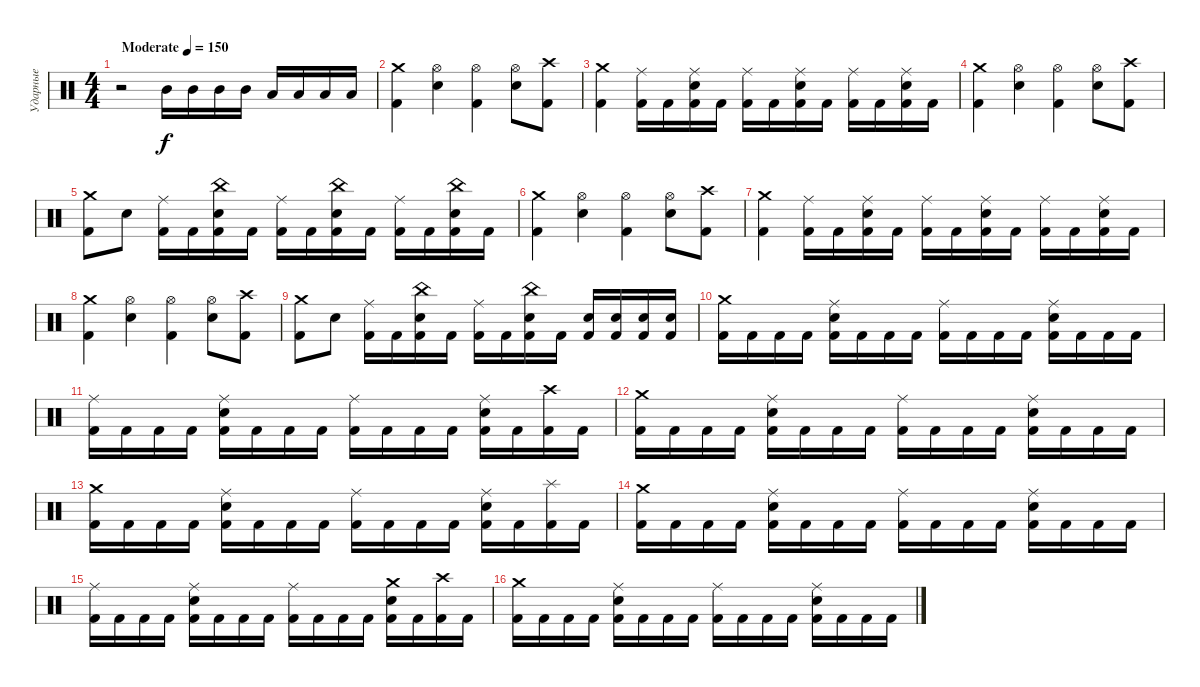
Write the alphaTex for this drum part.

\track ("Ударные" "Ударные") {instrument percussion}
\staff {score}
\articulation defaults
\ts (4 4)
\tempo (150 "Moderate")
\clef neutral
\ks c
r.2{dy f} "Mid Tom (hit)".16 "Mid Tom (hit)".16 "Mid Tom (hit)".16 "Mid Tom (hit)".16 "Low Tom (hit)".16 "Low Tom (hit)".16 "Low Tom (hit)".16 "Low Tom (hit)".16 |
("Crash medium (hit)" "Kick (hit) 2").4 ("Hi-Hat (open)" "Electric Snare (hit)").4 ("Hi-Hat (open)" "Kick (hit) 2").4 ("Hi-Hat (open)" "Electric Snare (hit)").8 ("Crash high (hit)" "Kick (hit) 2").8 |
("Crash medium (hit)" "Kick (hit) 2").4 ("Ride (middle)" "Kick (hit) 2").16 "Kick (hit) 2".16 ("Ride (middle)" "Electric Snare (hit)" "Kick (hit) 2").16 "Kick (hit) 2".16 ("Ride (middle)" "Kick (hit) 2").16 "Kick (hit) 2".16 ("Ride (middle)" "Electric Snare (hit)" "Kick (hit) 2").16 "Kick (hit) 2".16 ("Ride (middle)" "Kick (hit) 2").16 "Kick (hit) 2".16 ("Ride (middle)" "Electric Snare (hit)" "Kick (hit) 2").16 "Kick (hit) 2".16 |
("Crash medium (hit)" "Kick (hit) 2").4 ("Hi-Hat (open)" "Electric Snare (hit)").4 ("Hi-Hat (open)" "Kick (hit) 2").4 ("Hi-Hat (open)" "Electric Snare (hit)").8 ("Crash high (hit)" "Kick (hit) 2").8 |
("Crash medium (hit)" "Kick (hit) 2").8 "Electric Snare (hit)".8 ("Ride (middle)" "Kick (hit) 2").16 "Kick (hit) 2".16 ("China (hit)" "Electric Snare (hit)" "Kick (hit) 2").16 "Kick (hit) 2".16 ("Ride (middle)" "Kick (hit) 2").16 "Kick (hit) 2".16 ("China (hit)" "Electric Snare (hit)" "Kick (hit) 2").16 "Kick (hit) 2".16 ("Ride (middle)" "Kick (hit) 2").16 "Kick (hit) 2".16 ("China (hit)" "Electric Snare (hit)" "Kick (hit) 2").16 "Kick (hit) 2".16 |
("Crash medium (hit)" "Kick (hit) 2").4 ("Hi-Hat (open)" "Electric Snare (hit)").4 ("Hi-Hat (open)" "Kick (hit) 2").4 ("Hi-Hat (open)" "Electric Snare (hit)").8 ("Crash high (hit)" "Kick (hit) 2").8 |
("Crash medium (hit)" "Kick (hit) 2").4 ("Ride (middle)" "Kick (hit) 2").16 "Kick (hit) 2".16 ("Ride (middle)" "Electric Snare (hit)" "Kick (hit) 2").16 "Kick (hit) 2".16 ("Ride (middle)" "Kick (hit) 2").16 "Kick (hit) 2".16 ("Ride (middle)" "Electric Snare (hit)" "Kick (hit) 2").16 "Kick (hit) 2".16 ("Ride (middle)" "Kick (hit) 2").16 "Kick (hit) 2".16 ("Ride (middle)" "Electric Snare (hit)" "Kick (hit) 2").16 "Kick (hit) 2".16 |
("Crash medium (hit)" "Kick (hit) 2").4 ("Hi-Hat (open)" "Electric Snare (hit)").4 ("Hi-Hat (open)" "Kick (hit) 2").4 ("Hi-Hat (open)" "Electric Snare (hit)").8 ("Crash high (hit)" "Kick (hit) 2").8 |
("Crash medium (hit)" "Kick (hit) 2").8 "Electric Snare (hit)".8 ("Ride (middle)" "Kick (hit) 2").16 "Kick (hit) 2".16 ("China (hit)" "Electric Snare (hit)" "Kick (hit) 2").16 "Kick (hit) 2".16 ("Ride (middle)" "Kick (hit) 2").16 "Kick (hit) 2".16 ("China (hit)" "Electric Snare (hit)" "Kick (hit) 2").16 "Kick (hit) 2".16 ("Electric Snare (hit)" "Kick (hit) 2").16 ("Electric Snare (hit)" "Kick (hit) 2").16 ("Electric Snare (hit)" "Kick (hit) 2").16 ("Electric Snare (hit)" "Kick (hit) 2").16 |
("Crash medium (hit)" "Kick (hit) 2").16 "Kick (hit) 2".16 "Kick (hit) 2".16 "Kick (hit) 2".16 ("Ride (middle)" "Electric Snare (hit)" "Kick (hit) 2").16 "Kick (hit) 2".16 "Kick (hit) 2".16 "Kick (hit) 2".16 ("Ride (middle)" "Kick (hit) 2").16 "Kick (hit) 2".16 "Kick (hit) 2".16 "Kick (hit) 2".16 ("Ride (middle)" "Electric Snare (hit)" "Kick (hit) 2").16 "Kick (hit) 2".16 "Kick (hit) 2".16 "Kick (hit) 2".16 |
("Ride (middle)" "Kick (hit) 2").16 "Kick (hit) 2".16 "Kick (hit) 2".16 "Kick (hit) 2".16 ("Ride (middle)" "Electric Snare (hit)" "Kick (hit) 2").16 "Kick (hit) 2".16 "Kick (hit) 2".16 "Kick (hit) 2".16 ("Ride (middle)" "Kick (hit) 2").16 "Kick (hit) 2".16 "Kick (hit) 2".16 "Kick (hit) 2".16 ("Ride (middle)" "Electric Snare (hit)" "Kick (hit) 2").16 "Kick (hit) 2".16 ("Crash high (hit)" "Kick (hit) 2").16 "Kick (hit) 2".16 |
("Crash medium (hit)" "Kick (hit) 2").16 "Kick (hit) 2".16 "Kick (hit) 2".16 "Kick (hit) 2".16 ("Ride (middle)" "Electric Snare (hit)" "Kick (hit) 2").16 "Kick (hit) 2".16 "Kick (hit) 2".16 "Kick (hit) 2".16 ("Ride (middle)" "Kick (hit) 2").16 "Kick (hit) 2".16 "Kick (hit) 2".16 "Kick (hit) 2".16 ("Ride (middle)" "Electric Snare (hit)" "Kick (hit) 2").16 "Kick (hit) 2".16 "Kick (hit) 2".16 "Kick (hit) 2".16 |
("Crash medium (hit)" "Kick (hit) 2").16 "Kick (hit) 2".16 "Kick (hit) 2".16 "Kick (hit) 2".16 ("Ride (middle)" "Electric Snare (hit)" "Kick (hit) 2").16 "Kick (hit) 2".16 "Kick (hit) 2".16 "Kick (hit) 2".16 ("Ride (middle)" "Kick (hit) 2").16 "Kick (hit) 2".16 "Kick (hit) 2".16 "Kick (hit) 2".16 ("Ride (middle)" "Electric Snare (hit)" "Kick (hit) 2").16 "Kick (hit) 2".16 ("Splash (hit)" "Kick (hit) 2").16 "Kick (hit) 2".16 |
("Crash medium (hit)" "Kick (hit) 2").16 "Kick (hit) 2".16 "Kick (hit) 2".16 "Kick (hit) 2".16 ("Ride (middle)" "Electric Snare (hit)" "Kick (hit) 2").16 "Kick (hit) 2".16 "Kick (hit) 2".16 "Kick (hit) 2".16 ("Ride (middle)" "Kick (hit) 2").16 "Kick (hit) 2".16 "Kick (hit) 2".16 "Kick (hit) 2".16 ("Ride (middle)" "Electric Snare (hit)" "Kick (hit) 2").16 "Kick (hit) 2".16 "Kick (hit) 2".16 "Kick (hit) 2".16 |
("Ride (middle)" "Kick (hit) 2").16 "Kick (hit) 2".16 "Kick (hit) 2".16 "Kick (hit) 2".16 ("Ride (middle)" "Electric Snare (hit)" "Kick (hit) 2").16 "Kick (hit) 2".16 "Kick (hit) 2".16 "Kick (hit) 2".16 ("Ride (middle)" "Kick (hit) 2").16 "Kick (hit) 2".16 "Kick (hit) 2".16 "Kick (hit) 2".16 ("Crash medium (hit)" "Electric Snare (hit)" "Kick (hit) 2").16 "Kick (hit) 2".16 ("Crash high (hit)" "Kick (hit) 2").16 "Kick (hit) 2".16 |
("Crash medium (hit)" "Kick (hit) 2").16 "Kick (hit) 2".16 "Kick (hit) 2".16 "Kick (hit) 2".16 ("Ride (middle)" "Electric Snare (hit)" "Kick (hit) 2").16 "Kick (hit) 2".16 "Kick (hit) 2".16 "Kick (hit) 2".16 ("Ride (middle)" "Kick (hit) 2").16 "Kick (hit) 2".16 "Kick (hit) 2".16 "Kick (hit) 2".16 ("Ride (middle)" "Electric Snare (hit)" "Kick (hit) 2").16 "Kick (hit) 2".16 "Kick (hit) 2".16 "Kick (hit) 2".16
